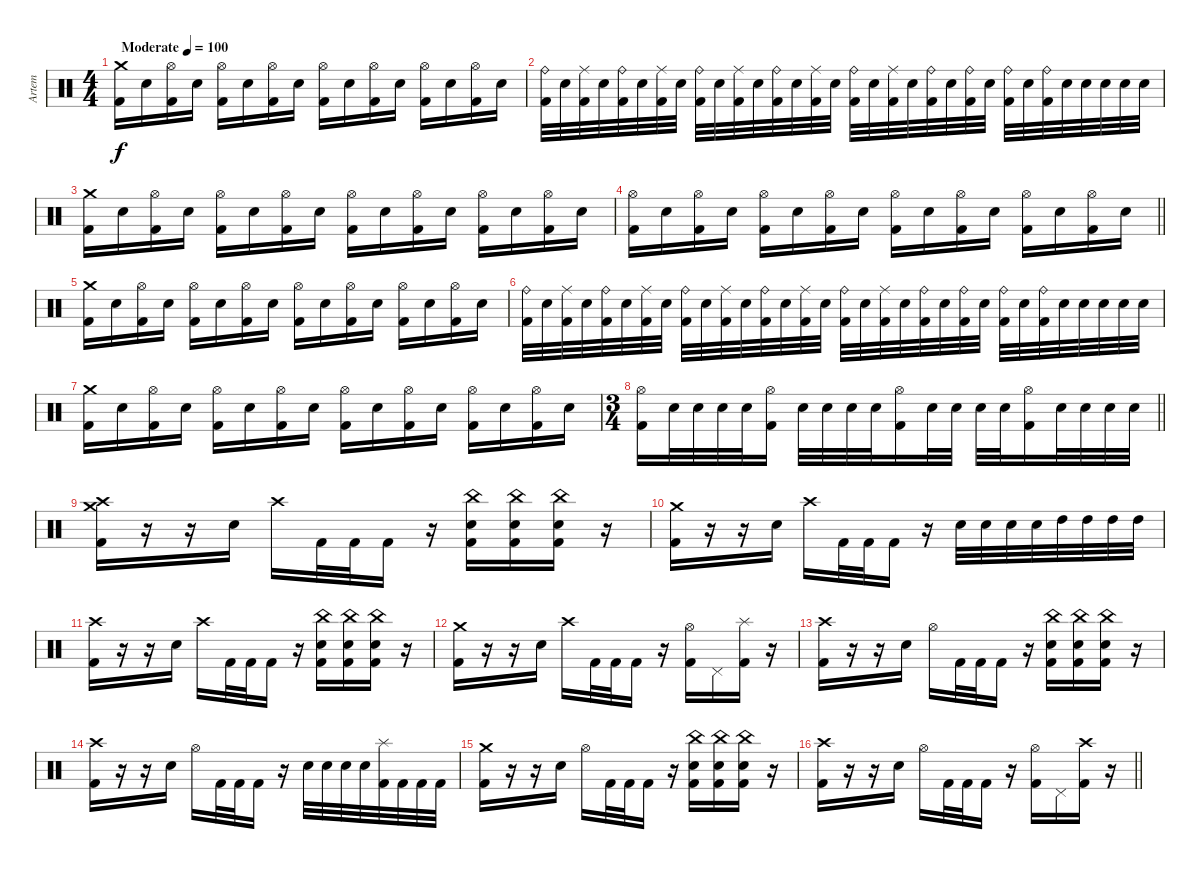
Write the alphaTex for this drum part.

\track ("Artem" "Artem") {instrument percussion}
\staff {score}
\articulation defaults
\ts (4 4)
\tempo (100 "Moderate")
\clef neutral
\ks c
("Kick (hit) 2" "Crash medium (hit)").16{dy f} "Electric Snare (hit)".16 ("Hi-Hat (open)" "Kick (hit) 2").16 "Electric Snare (hit)".16 ("Hi-Hat (open)" "Kick (hit) 2").16 "Electric Snare (hit)".16 ("Hi-Hat (open)" "Kick (hit) 2").16 "Electric Snare (hit)".16 ("Hi-Hat (open)" "Kick (hit) 2").16 "Electric Snare (hit)".16 ("Hi-Hat (open)" "Kick (hit) 2").16 "Electric Snare (hit)".16 ("Hi-Hat (open)" "Kick (hit) 2").16 "Electric Snare (hit)".16 ("Hi-Hat (open)" "Kick (hit) 2").16 "Electric Snare (hit)".16 |
("Ride (bell)" "Kick (hit) 2").32 "Electric Snare (hit)".32 ("Ride (middle)" "Kick (hit) 2").32 "Electric Snare (hit)".32 ("Ride (bell)" "Kick (hit) 2").32 "Electric Snare (hit)".32 ("Ride (middle)" "Kick (hit) 2").32 "Electric Snare (hit)".32 ("Ride (bell)" "Kick (hit) 2").32 "Electric Snare (hit)".32 ("Ride (middle)" "Kick (hit) 2").32 "Electric Snare (hit)".32 ("Ride (bell)" "Kick (hit) 2").32 "Electric Snare (hit)".32 ("Ride (middle)" "Kick (hit) 2").32 "Electric Snare (hit)".32 ("Ride (bell)" "Kick (hit) 2").32 "Electric Snare (hit)".32 ("Ride (middle)" "Kick (hit) 2").32 "Electric Snare (hit)".32 ("Ride (bell)" "Kick (hit) 2").32 "Electric Snare (hit)".32 ("Ride (bell)" "Kick (hit) 2").32 "Electric Snare (hit)".32 ("Ride (bell)" "Kick (hit) 2").32 "Electric Snare (hit)".32 ("Ride (bell)" "Kick (hit) 2").32 "Electric Snare (hit)".32 "Electric Snare (hit)".32 "Electric Snare (hit)".32 "Electric Snare (hit)".32 "Electric Snare (hit)".32 |
("Kick (hit) 2" "Crash medium (hit)").16 "Electric Snare (hit)".16 ("Hi-Hat (open)" "Kick (hit) 2").16 "Electric Snare (hit)".16 ("Hi-Hat (open)" "Kick (hit) 2").16 "Electric Snare (hit)".16 ("Hi-Hat (open)" "Kick (hit) 2").16 "Electric Snare (hit)".16 ("Hi-Hat (open)" "Kick (hit) 2").16 "Electric Snare (hit)".16 ("Hi-Hat (open)" "Kick (hit) 2").16 "Electric Snare (hit)".16 ("Hi-Hat (open)" "Kick (hit) 2").16 "Electric Snare (hit)".16 ("Hi-Hat (open)" "Kick (hit) 2").16 "Electric Snare (hit)".16 |
\barLineRight lightlight
("Hi-Hat (open)" "Kick (hit) 2").16 "Electric Snare (hit)".16 ("Hi-Hat (open)" "Kick (hit) 2").16 "Electric Snare (hit)".16 ("Hi-Hat (open)" "Kick (hit) 2").16 "Electric Snare (hit)".16 ("Hi-Hat (open)" "Kick (hit) 2").16 "Electric Snare (hit)".16 ("Hi-Hat (open)" "Kick (hit) 2").16 "Electric Snare (hit)".16 ("Hi-Hat (open)" "Kick (hit) 2").16 "Electric Snare (hit)".16 ("Hi-Hat (open)" "Kick (hit) 2").16 "Electric Snare (hit)".16 ("Hi-Hat (open)" "Kick (hit) 2").16 "Electric Snare (hit)".16 |
("Kick (hit) 2" "Crash medium (hit)").16 "Electric Snare (hit)".16 ("Hi-Hat (open)" "Kick (hit) 2").16 "Electric Snare (hit)".16 ("Hi-Hat (open)" "Kick (hit) 2").16 "Electric Snare (hit)".16 ("Hi-Hat (open)" "Kick (hit) 2").16 "Electric Snare (hit)".16 ("Hi-Hat (open)" "Kick (hit) 2").16 "Electric Snare (hit)".16 ("Hi-Hat (open)" "Kick (hit) 2").16 "Electric Snare (hit)".16 ("Hi-Hat (open)" "Kick (hit) 2").16 "Electric Snare (hit)".16 ("Hi-Hat (open)" "Kick (hit) 2").16 "Electric Snare (hit)".16 |
("Ride (bell)" "Kick (hit) 2").32 "Electric Snare (hit)".32 ("Ride (middle)" "Kick (hit) 2").32 "Electric Snare (hit)".32 ("Ride (bell)" "Kick (hit) 2").32 "Electric Snare (hit)".32 ("Ride (middle)" "Kick (hit) 2").32 "Electric Snare (hit)".32 ("Ride (bell)" "Kick (hit) 2").32 "Electric Snare (hit)".32 ("Ride (middle)" "Kick (hit) 2").32 "Electric Snare (hit)".32 ("Ride (bell)" "Kick (hit) 2").32 "Electric Snare (hit)".32 ("Ride (middle)" "Kick (hit) 2").32 "Electric Snare (hit)".32 ("Ride (bell)" "Kick (hit) 2").32 "Electric Snare (hit)".32 ("Ride (middle)" "Kick (hit) 2").32 "Electric Snare (hit)".32 ("Ride (bell)" "Kick (hit) 2").32 "Electric Snare (hit)".32 ("Ride (bell)" "Kick (hit) 2").32 "Electric Snare (hit)".32 ("Ride (bell)" "Kick (hit) 2").32 "Electric Snare (hit)".32 ("Ride (bell)" "Kick (hit) 2").32 "Electric Snare (hit)".32 "Electric Snare (hit)".32 "Electric Snare (hit)".32 "Electric Snare (hit)".32 "Electric Snare (hit)".32 |
("Kick (hit) 2" "Crash medium (hit)").16 "Electric Snare (hit)".16 ("Hi-Hat (open)" "Kick (hit) 2").16 "Electric Snare (hit)".16 ("Hi-Hat (open)" "Kick (hit) 2").16 "Electric Snare (hit)".16 ("Hi-Hat (open)" "Kick (hit) 2").16 "Electric Snare (hit)".16 ("Hi-Hat (open)" "Kick (hit) 2").16 "Electric Snare (hit)".16 ("Hi-Hat (open)" "Kick (hit) 2").16 "Electric Snare (hit)".16 ("Hi-Hat (open)" "Kick (hit) 2").16 "Electric Snare (hit)".16 ("Hi-Hat (open)" "Kick (hit) 2").16 "Electric Snare (hit)".16 |
\ts (3 4)
\barLineRight lightlight
("Kick (hit) 2" "Hi-Hat (open)").16 "Electric Snare (hit)".32 "Electric Snare (hit)".32 "Electric Snare (hit)".32 "Electric Snare (hit)".32 ("Kick (hit) 2" "Hi-Hat (open)").16 "Electric Snare (hit)".32 "Electric Snare (hit)".32 "Electric Snare (hit)".32 "Electric Snare (hit)".32 ("Kick (hit) 2" "Hi-Hat (open)").16 "Electric Snare (hit)".32 "Electric Snare (hit)".32 "Electric Snare (hit)".32 "Electric Snare (hit)".32 ("Kick (hit) 2" "Hi-Hat (open)").16 "Electric Snare (hit)".32 "Electric Snare (hit)".32 "Electric Snare (hit)".32 "Electric Snare (hit)".32 |
\section ("" "")
("Kick (hit) 2" "Crash high (hit)" "Crash medium (hit)").16 r.16 r.16 "Electric Snare (hit)".16 "Crash high (hit)".16 "Kick (hit) 2".32 "Kick (hit) 2".32 "Kick (hit) 2".16 r.16 ("Kick (hit) 2" "China (hit)" "Electric Snare (hit)").16 ("Kick (hit) 2" "Electric Snare (hit)" "China (hit)").16 ("Kick (hit) 2" "Electric Snare (hit)" "China (hit)").16 r.16 |
("Kick (hit) 2" "Crash medium (hit)").16 r.16 r.16 "Electric Snare (hit)".16 "Crash high (hit)".16 "Kick (hit) 2".32 "Kick (hit) 2".32 "Kick (hit) 2".16 r.16 "Electric Snare (hit)".32 "Electric Snare (hit)".32 "Electric Snare (hit)".32 "Electric Snare (hit)".32 "High Tom (hit)".32 "High Tom (hit)".32 "High Tom (hit)".32 "High Tom (hit)".32 |
("Kick (hit) 2" "Crash high (hit)").16 r.16 r.16 "Electric Snare (hit)".16 "Crash high (hit)".16 "Kick (hit) 2".32 "Kick (hit) 2".32 "Kick (hit) 2".16 r.16 ("Kick (hit) 2" "China (hit)" "Electric Snare (hit)").16 ("Kick (hit) 2" "Electric Snare (hit)" "China (hit)").16 ("Kick (hit) 2" "Electric Snare (hit)" "China (hit)").16 r.16 |
("Kick (hit) 2" "Crash medium (hit)").16 r.16 r.16 "Electric Snare (hit)".16 "Crash high (hit)".16 "Kick (hit) 2".32 "Kick (hit) 2".32 "Kick (hit) 2".16 r.16 ("Kick (hit) 2" "Hi-Hat (open)").16 "Pedal Hi-Hat (hit)".16 ("Kick (hit) 2" "Splash (hit)").16 r.16 |
("Kick (hit) 2" "Crash high (hit)").16 r.16 r.16 "Electric Snare (hit)".16 "Hi-Hat (open)".16 "Kick (hit) 2".32 "Kick (hit) 2".32 "Kick (hit) 2".16 r.16 ("Kick (hit) 2" "China (hit)" "Electric Snare (hit)").16 ("Kick (hit) 2" "Electric Snare (hit)" "China (hit)").16 ("Kick (hit) 2" "Electric Snare (hit)" "China (hit)").16 r.16 |
("Kick (hit) 2" "Crash high (hit)").16 r.16 r.16 "Electric Snare (hit)".16 "Hi-Hat (open)".16 "Kick (hit) 2".32 "Kick (hit) 2".32 "Kick (hit) 2".16 r.16 "Electric Snare (hit)".32 "Electric Snare (hit)".32 "Electric Snare (hit)".32 "Electric Snare (hit)".32 ("Kick (hit) 2" "Splash (hit)").32 "Kick (hit) 2".32 "Kick (hit) 2".32 "Kick (hit) 2".32 |
("Kick (hit) 2" "Crash medium (hit)").16 r.16 r.16 "Electric Snare (hit)".16 "Hi-Hat (open)".16 "Kick (hit) 2".32 "Kick (hit) 2".32 "Kick (hit) 2".16 r.16 ("Kick (hit) 2" "China (hit)" "Electric Snare (hit)").16 ("Kick (hit) 2" "Electric Snare (hit)" "China (hit)").16 ("Kick (hit) 2" "Electric Snare (hit)" "China (hit)").16 r.16 |
\barLineRight lightlight
("Kick (hit) 2" "Crash high (hit)").16 r.16 r.16 "Electric Snare (hit)".16 "Hi-Hat (open)".16 "Kick (hit) 2".32 "Kick (hit) 2".32 "Kick (hit) 2".16 r.16 ("Kick (hit) 2" "Hi-Hat (open)").16 "Pedal Hi-Hat (hit)".16 ("Kick (hit) 2" "Crash high (hit)").16 r.16
